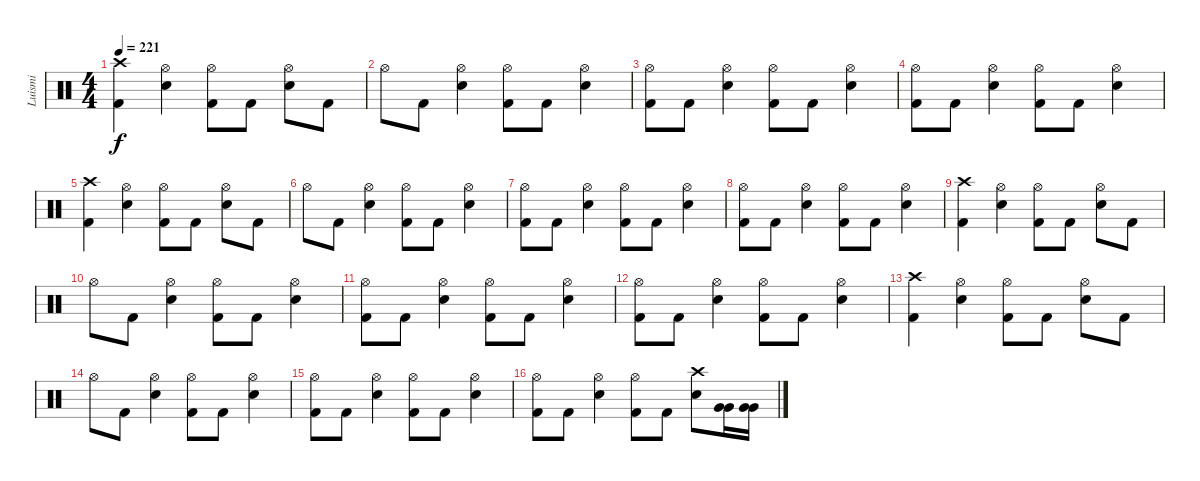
\track ("Luismi" "Luismi") {instrument percussion}
\staff {score}
\articulation defaults
\ts (4 4)
\tempo 221
\clef neutral
\ks c
("Crash high (hit)" "Kick (hit) 2").4{dy f} ("Hi-Hat (open)" "Snare (hit) 2").4 ("Hi-Hat (open)" "Kick (hit) 2").8 "Kick (hit) 2".8 ("Hi-Hat (open)" "Snare (hit) 2").8 "Kick (hit) 2".8 |
"Hi-Hat (open)".8 "Kick (hit) 2".8 ("Hi-Hat (open)" "Snare (hit) 2").4 ("Hi-Hat (open)" "Kick (hit) 2").8 "Kick (hit) 2".8 ("Hi-Hat (open)" "Snare (hit) 2").4 |
("Hi-Hat (open)" "Kick (hit) 2").8 "Kick (hit) 2".8 ("Hi-Hat (open)" "Snare (hit) 2").4 ("Hi-Hat (open)" "Kick (hit) 2").8 "Kick (hit) 2".8 ("Hi-Hat (open)" "Snare (hit) 2").4 |
("Hi-Hat (open)" "Kick (hit) 2").8 "Kick (hit) 2".8 ("Hi-Hat (open)" "Snare (hit) 2").4 ("Hi-Hat (open)" "Kick (hit) 2").8 "Kick (hit) 2".8 ("Hi-Hat (open)" "Snare (hit) 2").4 |
("Crash high (hit)" "Kick (hit) 2").4 ("Hi-Hat (open)" "Snare (hit) 2").4 ("Hi-Hat (open)" "Kick (hit) 2").8 "Kick (hit) 2".8 ("Hi-Hat (open)" "Snare (hit) 2").8 "Kick (hit) 2".8 |
"Hi-Hat (open)".8 "Kick (hit) 2".8 ("Hi-Hat (open)" "Snare (hit) 2").4 ("Hi-Hat (open)" "Kick (hit) 2").8 "Kick (hit) 2".8 ("Hi-Hat (open)" "Snare (hit) 2").4 |
("Hi-Hat (open)" "Kick (hit) 2").8 "Kick (hit) 2".8 ("Hi-Hat (open)" "Snare (hit) 2").4 ("Hi-Hat (open)" "Kick (hit) 2").8 "Kick (hit) 2".8 ("Hi-Hat (open)" "Snare (hit) 2").4 |
("Hi-Hat (open)" "Kick (hit) 2").8 "Kick (hit) 2".8 ("Hi-Hat (open)" "Snare (hit) 2").4 ("Hi-Hat (open)" "Kick (hit) 2").8 "Kick (hit) 2".8 ("Hi-Hat (open)" "Snare (hit) 2").4 |
("Crash high (hit)" "Kick (hit) 2").4 ("Hi-Hat (open)" "Snare (hit) 2").4 ("Hi-Hat (open)" "Kick (hit) 2").8 "Kick (hit) 2".8 ("Hi-Hat (open)" "Snare (hit) 2").8 "Kick (hit) 2".8 |
"Hi-Hat (open)".8 "Kick (hit) 2".8 ("Hi-Hat (open)" "Snare (hit) 2").4 ("Hi-Hat (open)" "Kick (hit) 2").8 "Kick (hit) 2".8 ("Hi-Hat (open)" "Snare (hit) 2").4 |
("Hi-Hat (open)" "Kick (hit) 2").8 "Kick (hit) 2".8 ("Hi-Hat (open)" "Snare (hit) 2").4 ("Hi-Hat (open)" "Kick (hit) 2").8 "Kick (hit) 2".8 ("Hi-Hat (open)" "Snare (hit) 2").4 |
("Hi-Hat (open)" "Kick (hit) 2").8 "Kick (hit) 2".8 ("Hi-Hat (open)" "Snare (hit) 2").4 ("Hi-Hat (open)" "Kick (hit) 2").8 "Kick (hit) 2".8 ("Hi-Hat (open)" "Snare (hit) 2").4 |
("Crash high (hit)" "Kick (hit) 2").4 ("Hi-Hat (open)" "Snare (hit) 2").4 ("Hi-Hat (open)" "Kick (hit) 2").8 "Kick (hit) 2".8 ("Hi-Hat (open)" "Snare (hit) 2").8 "Kick (hit) 2".8 |
"Hi-Hat (open)".8 "Kick (hit) 2".8 ("Hi-Hat (open)" "Snare (hit) 2").4 ("Hi-Hat (open)" "Kick (hit) 2").8 "Kick (hit) 2".8 ("Hi-Hat (open)" "Snare (hit) 2").4 |
("Hi-Hat (open)" "Kick (hit) 2").8 "Kick (hit) 2".8 ("Hi-Hat (open)" "Snare (hit) 2").4 ("Hi-Hat (open)" "Kick (hit) 2").8 "Kick (hit) 2".8 ("Hi-Hat (open)" "Snare (hit) 2").4 |
("Hi-Hat (open)" "Kick (hit) 2").8 "Kick (hit) 2".8 ("Hi-Hat (open)" "Snare (hit) 2").4 ("Hi-Hat (open)" "Kick (hit) 2").8 "Kick (hit) 2".8 ("Crash high (hit)" "Snare (hit) 2").8 ("Very Low Tom (hit)" "Very Low Tom (hit)").16 ("Very Low Tom (hit)" "Very Low Tom (hit)").16
